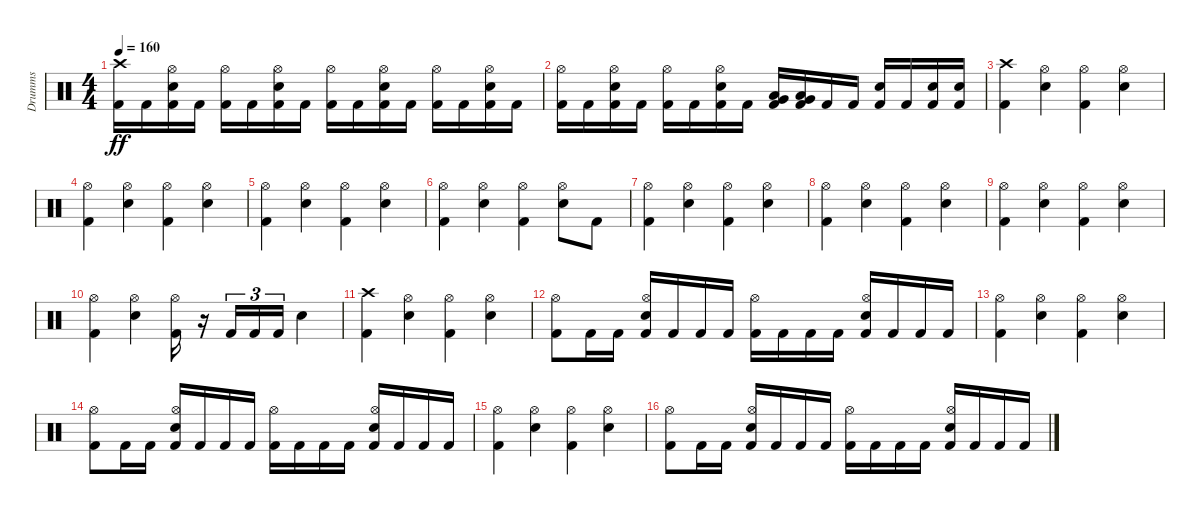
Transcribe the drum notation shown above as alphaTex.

\track ("Drumms" "Drumms") {instrument percussion}
\staff {score}
\articulation defaults
\ts (4 4)
\tempo 160
\clef neutral
\ks c
("Crash high (hit)" "Kick (hit) 2").16{dy ff} "Kick (hit) 2".16 ("Hi-Hat (open)" "Electric Snare (hit)" "Kick (hit) 2").16 "Kick (hit) 2".16 ("Hi-Hat (open)" "Kick (hit) 2").16 "Kick (hit) 2".16 ("Hi-Hat (open)" "Electric Snare (hit)" "Kick (hit) 2").16 "Kick (hit) 2".16 ("Hi-Hat (open)" "Kick (hit) 2").16 "Kick (hit) 2".16 ("Hi-Hat (open)" "Electric Snare (hit)" "Kick (hit) 2").16 "Kick (hit) 2".16 ("Hi-Hat (open)" "Kick (hit) 2").16 "Kick (hit) 2".16 ("Hi-Hat (open)" "Electric Snare (hit)" "Kick (hit) 2").16 "Kick (hit) 2".16 |
("Hi-Hat (open)" "Kick (hit) 2").16 "Kick (hit) 2".16 ("Hi-Hat (open)" "Electric Snare (hit)" "Kick (hit) 2").16 "Kick (hit) 2".16 ("Hi-Hat (open)" "Kick (hit) 2").16 "Kick (hit) 2".16 ("Hi-Hat (open)" "Electric Snare (hit)" "Kick (hit) 2").16 "Kick (hit) 2".16 ("Low Tom (hit)" "Very Low Tom (hit)" "Kick (hit) 2").16 ("Low Tom (hit)" "Very Low Tom (hit)" "Kick (hit) 2").16 "Kick (hit) 2".16 "Kick (hit) 2".16 ("Electric Snare (hit)" "Kick (hit) 2").16 "Kick (hit) 2".16 ("Electric Snare (hit)" "Kick (hit) 2").16 ("Electric Snare (hit)" "Kick (hit) 2").16 |
("Crash high (hit)" "Kick (hit) 2").4 ("Hi-Hat (open)" "Electric Snare (hit)").4 ("Hi-Hat (open)" "Kick (hit) 2").4 ("Hi-Hat (open)" "Electric Snare (hit)").4 |
("Hi-Hat (open)" "Kick (hit) 2").4 ("Hi-Hat (open)" "Electric Snare (hit)").4 ("Hi-Hat (open)" "Kick (hit) 2").4 ("Hi-Hat (open)" "Electric Snare (hit)").4 |
("Hi-Hat (open)" "Kick (hit) 2").4 ("Hi-Hat (open)" "Electric Snare (hit)").4 ("Hi-Hat (open)" "Kick (hit) 2").4 ("Hi-Hat (open)" "Electric Snare (hit)").4 |
("Hi-Hat (open)" "Kick (hit) 2").4 ("Hi-Hat (open)" "Electric Snare (hit)").4 ("Hi-Hat (open)" "Kick (hit) 2").4 ("Hi-Hat (open)" "Electric Snare (hit)").8 "Kick (hit) 2".8 |
("Hi-Hat (open)" "Kick (hit) 2").4 ("Hi-Hat (open)" "Electric Snare (hit)").4 ("Hi-Hat (open)" "Kick (hit) 2").4 ("Hi-Hat (open)" "Electric Snare (hit)").4 |
("Hi-Hat (open)" "Kick (hit) 2").4 ("Hi-Hat (open)" "Electric Snare (hit)").4 ("Hi-Hat (open)" "Kick (hit) 2").4 ("Hi-Hat (open)" "Electric Snare (hit)").4 |
("Hi-Hat (open)" "Kick (hit) 2").4 ("Hi-Hat (open)" "Electric Snare (hit)").4 ("Hi-Hat (open)" "Kick (hit) 2").4 ("Hi-Hat (open)" "Electric Snare (hit)").4 |
("Hi-Hat (open)" "Kick (hit) 2").4 ("Hi-Hat (open)" "Electric Snare (hit)").4 ("Hi-Hat (open)" "Kick (hit) 2").16 r.16 "Kick (hit) 2".16{tu (3 2)} "Kick (hit) 2".16{tu (3 2)} "Kick (hit) 2".16{tu (3 2)} "Electric Snare (hit)".4 |
("Crash high (hit)" "Kick (hit) 2").4 ("Hi-Hat (open)" "Electric Snare (hit)").4 ("Hi-Hat (open)" "Kick (hit) 2").4 ("Hi-Hat (open)" "Electric Snare (hit)").4 |
("Hi-Hat (open)" "Kick (hit) 2").8 "Kick (hit) 2".16 "Kick (hit) 2".16 ("Hi-Hat (open)" "Electric Snare (hit)" "Kick (hit) 2").16 "Kick (hit) 2".16 "Kick (hit) 2".16 "Kick (hit) 2".16 ("Hi-Hat (open)" "Kick (hit) 2").16 "Kick (hit) 2".16 "Kick (hit) 2".16 "Kick (hit) 2".16 ("Hi-Hat (open)" "Electric Snare (hit)" "Kick (hit) 2").16 "Kick (hit) 2".16 "Kick (hit) 2".16 "Kick (hit) 2".16 |
("Hi-Hat (open)" "Kick (hit) 2").4 ("Hi-Hat (open)" "Electric Snare (hit)").4 ("Hi-Hat (open)" "Kick (hit) 2").4 ("Hi-Hat (open)" "Electric Snare (hit)").4 |
("Hi-Hat (open)" "Kick (hit) 2").8 "Kick (hit) 2".16 "Kick (hit) 2".16 ("Hi-Hat (open)" "Electric Snare (hit)" "Kick (hit) 2").16 "Kick (hit) 2".16 "Kick (hit) 2".16 "Kick (hit) 2".16 ("Hi-Hat (open)" "Kick (hit) 2").16 "Kick (hit) 2".16 "Kick (hit) 2".16 "Kick (hit) 2".16 ("Hi-Hat (open)" "Electric Snare (hit)" "Kick (hit) 2").16 "Kick (hit) 2".16 "Kick (hit) 2".16 "Kick (hit) 2".16 |
("Hi-Hat (open)" "Kick (hit) 2").4 ("Hi-Hat (open)" "Electric Snare (hit)").4 ("Hi-Hat (open)" "Kick (hit) 2").4 ("Hi-Hat (open)" "Electric Snare (hit)").4 |
("Hi-Hat (open)" "Kick (hit) 2").8 "Kick (hit) 2".16 "Kick (hit) 2".16 ("Hi-Hat (open)" "Electric Snare (hit)" "Kick (hit) 2").16 "Kick (hit) 2".16 "Kick (hit) 2".16 "Kick (hit) 2".16 ("Hi-Hat (open)" "Kick (hit) 2").16 "Kick (hit) 2".16 "Kick (hit) 2".16 "Kick (hit) 2".16 ("Hi-Hat (open)" "Electric Snare (hit)" "Kick (hit) 2").16 "Kick (hit) 2".16 "Kick (hit) 2".16 "Kick (hit) 2".16
